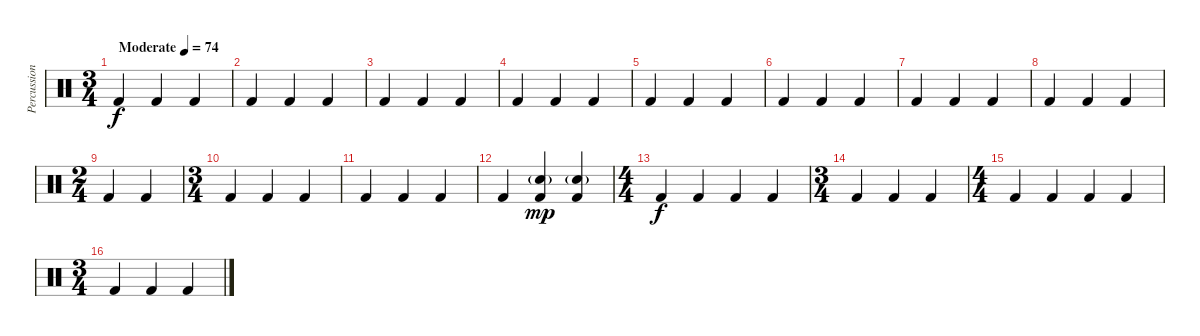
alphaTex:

\track ("Percussion" "Percussion") {instrument percussion}
\staff {score}
\articulation defaults
\ts (3 4)
\tempo (74 "Moderate")
\clef neutral
\ks c "Kick (hit) 2".4{dy f} "Kick (hit) 2".4 "Kick (hit) 2".4
|
"Kick (hit) 2".4 "Kick (hit) 2".4 "Kick (hit) 2".4 |
"Kick (hit) 2".4 "Kick (hit) 2".4 "Kick (hit) 2".4 |
"Kick (hit) 2".4 "Kick (hit) 2".4 "Kick (hit) 2".4 |
"Kick (hit) 2".4 "Kick (hit) 2".4 "Kick (hit) 2".4 |
"Kick (hit) 2".4 "Kick (hit) 2".4 "Kick (hit) 2".4 |
"Kick (hit) 2".4 "Kick (hit) 2".4 "Kick (hit) 2".4 |
"Kick (hit) 2".4 "Kick (hit) 2".4 "Kick (hit) 2".4 |
\ts (2 4)
"Kick (hit) 2".4 "Kick (hit) 2".4 |
\ts (3 4)
"Kick (hit) 2".4 "Kick (hit) 2".4 "Kick (hit) 2".4 |
"Kick (hit) 2".4 "Kick (hit) 2".4 "Kick (hit) 2".4 |
"Kick (hit) 2".4 ("Snare (hit) 2"{g} "Kick (hit) 2").4{dy mp} ("Snare (hit) 2"{g} "Kick (hit) 2").4 |
\ts (4 4)
"Kick (hit) 2".4{dy f} "Kick (hit) 2".4 "Kick (hit) 2".4 "Kick (hit) 2".4 |
\ts (3 4)
"Kick (hit) 2".4 "Kick (hit) 2".4 "Kick (hit) 2".4 |
\ts (4 4)
"Kick (hit) 2".4 "Kick (hit) 2".4 "Kick (hit) 2".4 "Kick (hit) 2".4 |
\ts (3 4)
"Kick (hit) 2".4 "Kick (hit) 2".4 "Kick (hit) 2".4
